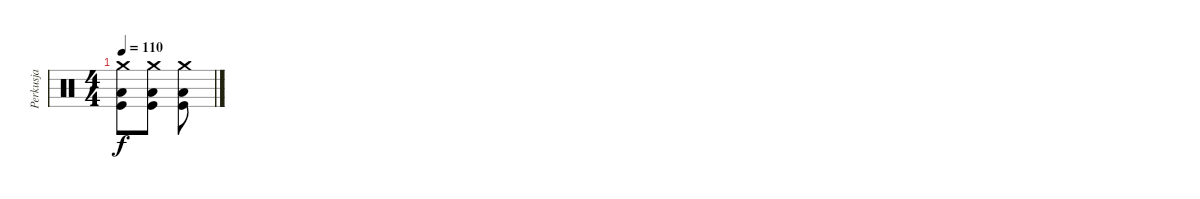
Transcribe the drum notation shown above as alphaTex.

\track ("Perkusja" "Perkusja") {instrument percussion}
\staff {score}
\articulation defaults
\ts (4 4)
\tempo 110
\clef neutral
\ks c
("Crash medium (hit)" "Low Tom (hit)" "Kick (hit)").8{dy f} ("Crash medium (hit)" "Low Tom (hit)" "Kick (hit)").8 ("Crash medium (hit)" "Low Tom (hit)" "Kick (hit)").8
